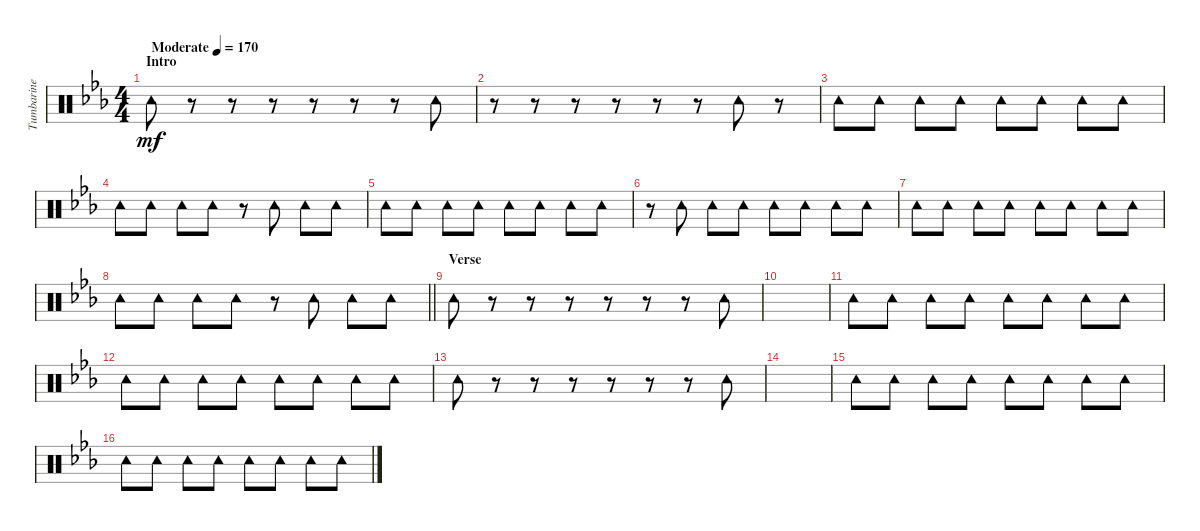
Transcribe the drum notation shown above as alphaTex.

\track ("Tumbarine" "Tumbarine") {solo instrument percussion}
\staff {score}
\articulation defaults
\ts (4 4)
\section ("" "Intro")
\tempo (170 "Moderate")
\clef neutral
\ks eb "Tambourine (hit)".8{dy mf}
r.8 r.8 r.8 r.8 r.8 r.8 "Tambourine (hit)".8 |
r.8 r.8 r.8 r.8 r.8 r.8 "Tambourine (hit)".8 r.8 |
"Tambourine (hit)".8 "Tambourine (hit)".8 "Tambourine (hit)".8 "Tambourine (hit)".8 "Tambourine (hit)".8 "Tambourine (hit)".8 "Tambourine (hit)".8 "Tambourine (hit)".8 |
"Tambourine (hit)".8 "Tambourine (hit)".8 "Tambourine (hit)".8 "Tambourine (hit)".8 r.8 "Tambourine (hit)".8 "Tambourine (hit)".8 "Tambourine (hit)".8 |
"Tambourine (hit)".8 "Tambourine (hit)".8 "Tambourine (hit)".8 "Tambourine (hit)".8 "Tambourine (hit)".8 "Tambourine (hit)".8 "Tambourine (hit)".8 "Tambourine (hit)".8 |
r.8 "Tambourine (hit)".8 "Tambourine (hit)".8 "Tambourine (hit)".8 "Tambourine (hit)".8 "Tambourine (hit)".8 "Tambourine (hit)".8 "Tambourine (hit)".8 |
"Tambourine (hit)".8 "Tambourine (hit)".8 "Tambourine (hit)".8 "Tambourine (hit)".8 "Tambourine (hit)".8 "Tambourine (hit)".8 "Tambourine (hit)".8 "Tambourine (hit)".8 |
\barLineRight lightlight "Tambourine (hit)".8 "Tambourine (hit)".8 "Tambourine (hit)".8 "Tambourine (hit)".8
r.8 "Tambourine (hit)".8 "Tambourine (hit)".8 "Tambourine (hit)".8 |
\section ("" "Verse")
"Tambourine (hit)".8 r.8 r.8 r.8 r.8 r.8 r.8 "Tambourine (hit)".8 |
|
"Tambourine (hit)".8 "Tambourine (hit)".8 "Tambourine (hit)".8 "Tambourine (hit)".8 "Tambourine (hit)".8 "Tambourine (hit)".8 "Tambourine (hit)".8 "Tambourine (hit)".8 |
"Tambourine (hit)".8 "Tambourine (hit)".8 "Tambourine (hit)".8 "Tambourine (hit)".8 "Tambourine (hit)".8 "Tambourine (hit)".8 "Tambourine (hit)".8 "Tambourine (hit)".8 |
"Tambourine (hit)".8 r.8 r.8 r.8 r.8 r.8 r.8 "Tambourine (hit)".8 |
|
"Tambourine (hit)".8 "Tambourine (hit)".8 "Tambourine (hit)".8 "Tambourine (hit)".8 "Tambourine (hit)".8 "Tambourine (hit)".8 "Tambourine (hit)".8 "Tambourine (hit)".8 |
"Tambourine (hit)".8 "Tambourine (hit)".8 "Tambourine (hit)".8 "Tambourine (hit)".8 "Tambourine (hit)".8 "Tambourine (hit)".8 "Tambourine (hit)".8 "Tambourine (hit)".8
